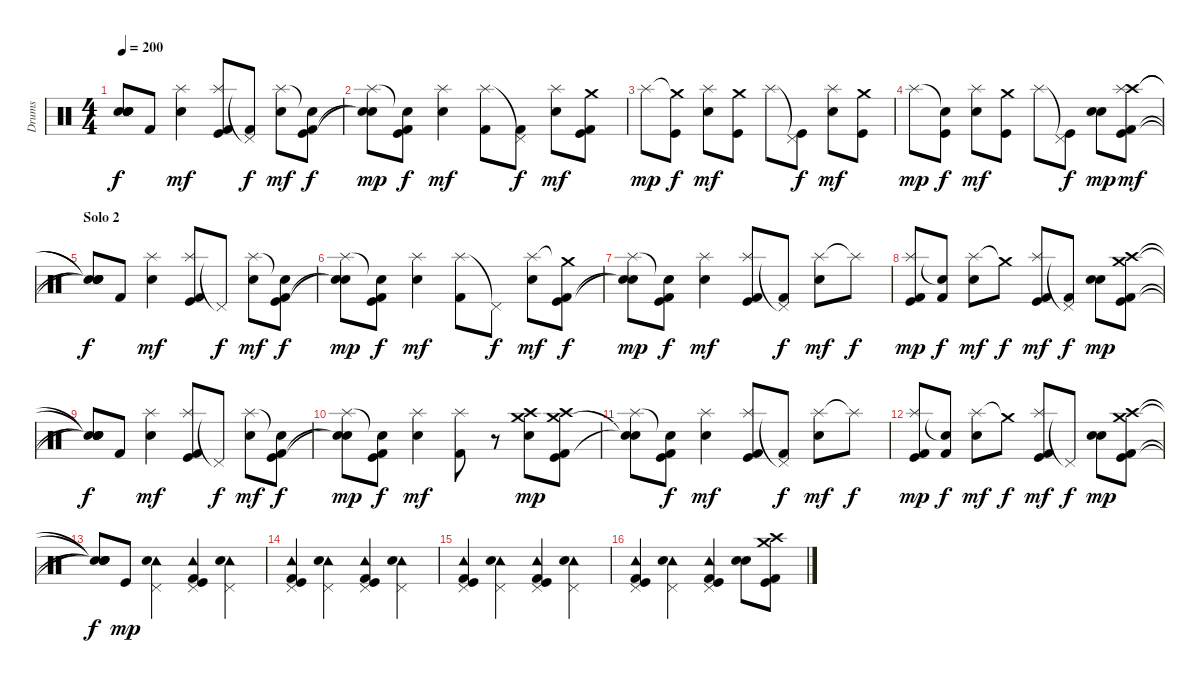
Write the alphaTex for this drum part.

\track ("Drums" "Drums") {instrument percussion}
\staff {score}
\articulation defaults
\ts (4 4)
\tempo 200
\clef neutral
\ks c
("Snare (hit)"{t} "Snare (hit)"{t} "Snare (hit)"{t} "Snare (hit)"{t}).8{dy f} "Kick (hit) 2".8 ("Splash (hit)" "Snare (hit) 2").4{dy mf} ("Splash (hit)" "Kick (hit)" "Kick (hit) 2").8 ("Pedal Hi-Hat (hit)"{t} "Kick (hit) 2").8{dy f} ("Splash (hit)" "Snare (hit) 2").8{dy mf} ("Snare (hit)"{t} "Kick (hit)" "Kick (hit) 2").8{dy f} |
("Splash (hit)" "Snare (hit)"{t} "Snare (hit)"{t}).8{dy mp} ("Snare (hit)"{t} "Kick (hit)" "Kick (hit) 2").8{dy f} ("Splash (hit)" "Snare (hit) 2").4{dy mf} ("Splash (hit)" "Kick (hit) 2").8 ("Pedal Hi-Hat (hit)"{t} "Kick (hit) 2").8{dy f} ("Splash (hit)" "Snare (hit) 2").8{dy mf} ("Crash medium (hit)" "Kick (hit)" "Kick (hit) 2").8 |
"Splash (hit)".8{dy mp} ("Crash medium (hit)"{t} "Kick (hit)").8{dy f} ("Splash (hit)" "Snare (hit) 2").8{dy mf} ("Crash medium (hit)" "Kick (hit)").8 "Splash (hit)".8 ("Pedal Hi-Hat (hit)"{t} "Kick (hit)").8{dy f} ("Splash (hit)" "Snare (hit) 2").8{dy mf} ("Crash medium (hit)" "Kick (hit)").8 |
"Splash (hit)".8{dy mp} ("Snare (hit)"{t} "Kick (hit)").8{dy f} ("Splash (hit)" "Snare (hit) 2").8{dy mf} ("Crash medium (hit)" "Kick (hit)").8 "Splash (hit)".8 ("Pedal Hi-Hat (hit)"{t} "Kick (hit)").8{dy f} ("Snare (hit) 2" "Electric Snare (hit)").8{dy mp} ("Crash high (hit)" "Splash (hit)" "Kick (hit)" "Kick (hit) 2").8{dy mf} |
\section ("" "Solo 2")
("Snare (hit)"{t} "Snare (hit)"{t} "Snare (hit)"{t} "Snare (hit)"{t}).8{dy f} "Kick (hit) 2".8 ("Splash (hit)" "Snare (hit) 2").4{dy mf} ("Splash (hit)" "Kick (hit)" "Kick (hit) 2").8 "Pedal Hi-Hat (hit)"{t}.8{dy f} ("Splash (hit)" "Snare (hit) 2").8{dy mf} ("Snare (hit)"{t} "Kick (hit)" "Kick (hit) 2").8{dy f} |
("Splash (hit)" "Snare (hit)"{t} "Snare (hit)"{t}).8{dy mp} ("Snare (hit)"{t} "Kick (hit)" "Kick (hit) 2").8{dy f} ("Splash (hit)" "Snare (hit) 2").4{dy mf} ("Splash (hit)" "Kick (hit) 2").8 "Pedal Hi-Hat (hit)"{t}.8{dy f} ("Splash (hit)" "Snare (hit) 2").8{dy mf} ("Crash medium (hit)"{t} "Kick (hit)" "Kick (hit) 2").8{dy f} |
("Splash (hit)" "Snare (hit)"{t} "Snare (hit)"{t}).8{dy mp} ("Snare (hit)"{t} "Kick (hit)" "Kick (hit) 2").8{dy f} ("Splash (hit)" "Snare (hit) 2").4{dy mf} ("Splash (hit)" "Kick (hit)" "Kick (hit) 2").8 ("Pedal Hi-Hat (hit)"{t} "Kick (hit) 2").8{dy f} ("Splash (hit)" "Snare (hit) 2").8{dy mf} "Splash (hit)"{t}.8{dy f} |
("Splash (hit)" "Kick (hit)" "Kick (hit) 2").8{dy mp} ("Snare (hit)"{t} "Kick (hit) 2").8{dy f} ("Splash (hit)" "Snare (hit) 2").8{dy mf} "Crash medium (hit)"{t}.8{dy f} ("Splash (hit)" "Kick (hit)" "Kick (hit) 2").8{dy mf} ("Pedal Hi-Hat (hit)"{t} "Kick (hit) 2").8{dy f} ("Snare (hit) 2" "Electric Snare (hit)").8{dy mp} ("Crash high (hit)" "Crash medium (hit)" "Kick (hit)" "Kick (hit) 2").8 |
("Snare (hit)"{t} "Snare (hit)"{t} "Snare (hit)"{t} "Snare (hit)"{t}).8{dy f} "Kick (hit) 2".8 ("Splash (hit)" "Snare (hit) 2").4{dy mf} ("Splash (hit)" "Kick (hit)" "Kick (hit) 2").8 "Pedal Hi-Hat (hit)"{t}.8{dy f} ("Splash (hit)" "Snare (hit) 2").8{dy mf} ("Snare (hit)"{t} "Kick (hit)" "Kick (hit) 2").8{dy f} |
("Splash (hit)" "Snare (hit)"{t} "Snare (hit)"{t}).8{dy mp} ("Snare (hit)"{t} "Kick (hit)" "Kick (hit) 2").8{dy f} ("Splash (hit)" "Snare (hit) 2").4{dy mf} ("Splash (hit)" "Kick (hit) 2").8 r.8 ("Crash high (hit)" "Crash medium (hit)" "Snare (hit) 2").8{dy mp} ("Crash high (hit)" "Crash medium (hit)" "Kick (hit)" "Kick (hit) 2").8 |
("Splash (hit)" "Snare (hit)"{t} "Snare (hit)"{t}).8 ("Snare (hit)"{t} "Kick (hit)" "Kick (hit) 2").8{dy f} ("Splash (hit)" "Snare (hit) 2").4{dy mf} ("Splash (hit)" "Kick (hit)" "Kick (hit) 2").8 ("Pedal Hi-Hat (hit)"{t} "Kick (hit) 2").8{dy f} ("Splash (hit)" "Snare (hit) 2").8{dy mf} "Splash (hit)"{t}.8{dy f} |
("Splash (hit)" "Kick (hit)" "Kick (hit) 2").8{dy mp} ("Snare (hit)"{t} "Kick (hit) 2").8{dy f} ("Splash (hit)" "Snare (hit) 2").8{dy mf} "Crash medium (hit)"{t}.8{dy f} ("Splash (hit)" "Kick (hit)" "Kick (hit) 2").8{dy mf} "Pedal Hi-Hat (hit)"{t}.8{dy f} ("Snare (hit) 2" "Electric Snare (hit)").8{dy mp} ("Crash high (hit)" "Crash medium (hit)" "Kick (hit)" "Kick (hit) 2").8 |
("Snare (hit)"{t} "Snare (hit)"{t} "Snare (hit)"{t} "Snare (hit)"{t}).8{dy f} "Kick (hit)".8{dy mp} ("Tambourine (hit)" "Pedal Hi-Hat (hit)" "Snare (hit) 2").4 ("Tambourine (hit)" "Pedal Hi-Hat (hit)" "Kick (hit)" "Kick (hit) 2").4 ("Tambourine (hit)" "Pedal Hi-Hat (hit)" "Snare (hit) 2").4 |
("Tambourine (hit)" "Pedal Hi-Hat (hit)" "Kick (hit)" "Kick (hit) 2").4 ("Tambourine (hit)" "Pedal Hi-Hat (hit)" "Snare (hit) 2").4 ("Tambourine (hit)" "Pedal Hi-Hat (hit)" "Kick (hit)" "Kick (hit) 2").4 ("Tambourine (hit)" "Pedal Hi-Hat (hit)" "Snare (hit) 2").4 |
("Tambourine (hit)" "Pedal Hi-Hat (hit)" "Kick (hit)" "Kick (hit) 2").4 ("Tambourine (hit)" "Pedal Hi-Hat (hit)" "Snare (hit) 2").4 ("Tambourine (hit)" "Pedal Hi-Hat (hit)" "Kick (hit)" "Kick (hit) 2").4 ("Tambourine (hit)" "Pedal Hi-Hat (hit)" "Snare (hit) 2").4 |
("Tambourine (hit)" "Pedal Hi-Hat (hit)" "Kick (hit)" "Kick (hit) 2").4 ("Tambourine (hit)" "Pedal Hi-Hat (hit)" "Snare (hit) 2").4 ("Tambourine (hit)" "Pedal Hi-Hat (hit)" "Kick (hit)" "Kick (hit) 2").4 ("Snare (hit) 2" "Electric Snare (hit)").8 ("Crash high (hit)" "Crash medium (hit)" "Kick (hit)" "Kick (hit) 2").8
